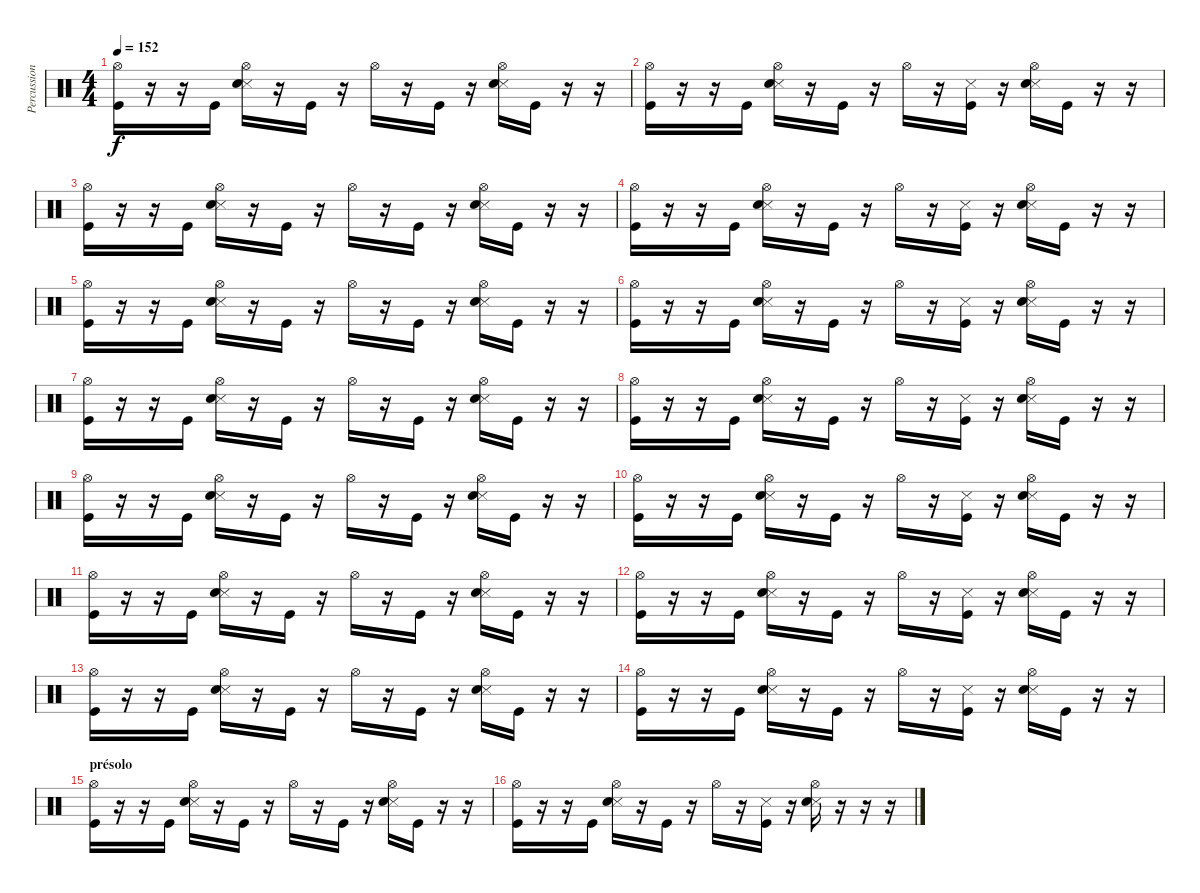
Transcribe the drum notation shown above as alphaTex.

\track ("Percussions" "Percussion") {instrument percussion}
\staff {score}
\articulation defaults
\ts (4 4)
\tempo 152
\clef neutral
\ks c
("Hi-Hat (open)" "Kick (hit)").16{dy f} r.16 r.16 "Kick (hit)".16 ("Hi-Hat (open)" "Snare (side stick) 3" "Snare (hit) 2").16 r.16 "Kick (hit)".16 r.16 "Hi-Hat (open)".16 r.16 "Kick (hit)".16 r.16 ("Hi-Hat (open)" "Snare (side stick) 3" "Snare (hit) 2").16 "Kick (hit)".16 r.16 r.16 |
("Hi-Hat (open)" "Kick (hit)").16 r.16 r.16 "Kick (hit)".16 ("Hi-Hat (open)" "Snare (side stick) 3" "Snare (hit) 2").16 r.16 "Kick (hit)".16 r.16 "Hi-Hat (open)".16 r.16 ("Snare (side stick) 3" "Kick (hit)").16 r.16 ("Hi-Hat (open)" "Snare (side stick) 3" "Snare (hit) 2").16 "Kick (hit)".16 r.16 r.16 |
("Hi-Hat (open)" "Kick (hit)").16 r.16 r.16 "Kick (hit)".16 ("Hi-Hat (open)" "Snare (side stick) 3" "Snare (hit) 2").16 r.16 "Kick (hit)".16 r.16 "Hi-Hat (open)".16 r.16 "Kick (hit)".16 r.16 ("Hi-Hat (open)" "Snare (side stick) 3" "Snare (hit) 2").16 "Kick (hit)".16 r.16 r.16 |
("Hi-Hat (open)" "Kick (hit)").16 r.16 r.16 "Kick (hit)".16 ("Hi-Hat (open)" "Snare (side stick) 3" "Snare (hit) 2").16 r.16 "Kick (hit)".16 r.16 "Hi-Hat (open)".16 r.16 ("Snare (side stick) 3" "Kick (hit)").16 r.16 ("Hi-Hat (open)" "Snare (side stick) 3" "Snare (hit) 2").16 "Kick (hit)".16 r.16 r.16 |
("Hi-Hat (open)" "Kick (hit)").16 r.16 r.16 "Kick (hit)".16 ("Hi-Hat (open)" "Snare (side stick) 3" "Snare (hit) 2").16 r.16 "Kick (hit)".16 r.16 "Hi-Hat (open)".16 r.16 "Kick (hit)".16 r.16 ("Hi-Hat (open)" "Snare (side stick) 3" "Snare (hit) 2").16 "Kick (hit)".16 r.16 r.16 |
("Hi-Hat (open)" "Kick (hit)").16 r.16 r.16 "Kick (hit)".16 ("Hi-Hat (open)" "Snare (side stick) 3" "Snare (hit) 2").16 r.16 "Kick (hit)".16 r.16 "Hi-Hat (open)".16 r.16 ("Snare (side stick) 3" "Kick (hit)").16 r.16 ("Hi-Hat (open)" "Snare (side stick) 3" "Snare (hit) 2").16 "Kick (hit)".16 r.16 r.16 |
("Hi-Hat (open)" "Kick (hit)").16 r.16 r.16 "Kick (hit)".16 ("Hi-Hat (open)" "Snare (side stick) 3" "Snare (hit) 2").16 r.16 "Kick (hit)".16 r.16 "Hi-Hat (open)".16 r.16 "Kick (hit)".16 r.16 ("Hi-Hat (open)" "Snare (side stick) 3" "Snare (hit) 2").16 "Kick (hit)".16 r.16 r.16 |
("Hi-Hat (open)" "Kick (hit)").16 r.16 r.16 "Kick (hit)".16 ("Hi-Hat (open)" "Snare (side stick) 3" "Snare (hit) 2").16 r.16 "Kick (hit)".16 r.16 "Hi-Hat (open)".16 r.16 ("Snare (side stick) 3" "Kick (hit)").16 r.16 ("Hi-Hat (open)" "Snare (side stick) 3" "Snare (hit) 2").16 "Kick (hit)".16 r.16 r.16 |
("Hi-Hat (open)" "Kick (hit)").16 r.16 r.16 "Kick (hit)".16 ("Hi-Hat (open)" "Snare (side stick) 3" "Snare (hit) 2").16 r.16 "Kick (hit)".16 r.16 "Hi-Hat (open)".16 r.16 "Kick (hit)".16 r.16 ("Hi-Hat (open)" "Snare (side stick) 3" "Snare (hit) 2").16 "Kick (hit)".16 r.16 r.16 |
("Hi-Hat (open)" "Kick (hit)").16 r.16 r.16 "Kick (hit)".16 ("Hi-Hat (open)" "Snare (side stick) 3" "Snare (hit) 2").16 r.16 "Kick (hit)".16 r.16 "Hi-Hat (open)".16 r.16 ("Snare (side stick) 3" "Kick (hit)").16 r.16 ("Hi-Hat (open)" "Snare (side stick) 3" "Snare (hit) 2").16 "Kick (hit)".16 r.16 r.16 |
("Hi-Hat (open)" "Kick (hit)").16 r.16 r.16 "Kick (hit)".16 ("Hi-Hat (open)" "Snare (side stick) 3" "Snare (hit) 2").16 r.16 "Kick (hit)".16 r.16 "Hi-Hat (open)".16 r.16 "Kick (hit)".16 r.16 ("Hi-Hat (open)" "Snare (side stick) 3" "Snare (hit) 2").16 "Kick (hit)".16 r.16 r.16 |
("Hi-Hat (open)" "Kick (hit)").16 r.16 r.16 "Kick (hit)".16 ("Hi-Hat (open)" "Snare (side stick) 3" "Snare (hit) 2").16 r.16 "Kick (hit)".16 r.16 "Hi-Hat (open)".16 r.16 ("Snare (side stick) 3" "Kick (hit)").16 r.16 ("Hi-Hat (open)" "Snare (side stick) 3" "Snare (hit) 2").16 "Kick (hit)".16 r.16 r.16 |
("Hi-Hat (open)" "Kick (hit)").16 r.16 r.16 "Kick (hit)".16 ("Hi-Hat (open)" "Snare (side stick) 3" "Snare (hit) 2").16 r.16 "Kick (hit)".16 r.16 "Hi-Hat (open)".16 r.16 "Kick (hit)".16 r.16 ("Hi-Hat (open)" "Snare (side stick) 3" "Snare (hit) 2").16 "Kick (hit)".16 r.16 r.16 |
("Hi-Hat (open)" "Kick (hit)").16 r.16 r.16 "Kick (hit)".16 ("Hi-Hat (open)" "Snare (side stick) 3" "Snare (hit) 2").16 r.16 "Kick (hit)".16 r.16 "Hi-Hat (open)".16 r.16 ("Snare (side stick) 3" "Kick (hit)").16 r.16 ("Hi-Hat (open)" "Snare (side stick) 3" "Snare (hit) 2").16 "Kick (hit)".16 r.16 r.16 |
\section ("" "présolo")
("Hi-Hat (open)" "Kick (hit)").16 r.16 r.16 "Kick (hit)".16 ("Hi-Hat (open)" "Snare (side stick) 3" "Snare (hit) 2").16 r.16 "Kick (hit)".16 r.16 "Hi-Hat (open)".16 r.16 "Kick (hit)".16 r.16 ("Hi-Hat (open)" "Snare (side stick) 3" "Snare (hit) 2").16 "Kick (hit)".16 r.16 r.16 |
("Hi-Hat (open)" "Kick (hit)").16 r.16 r.16 "Kick (hit)".16 ("Hi-Hat (open)" "Snare (side stick) 3" "Snare (hit) 2").16 r.16 "Kick (hit)".16 r.16 "Hi-Hat (open)".16 r.16 ("Snare (side stick) 3" "Kick (hit)").16 r.16 ("Hi-Hat (open)" "Snare (side stick) 3" "Snare (hit) 2").16 r.16 r.16 r.16
